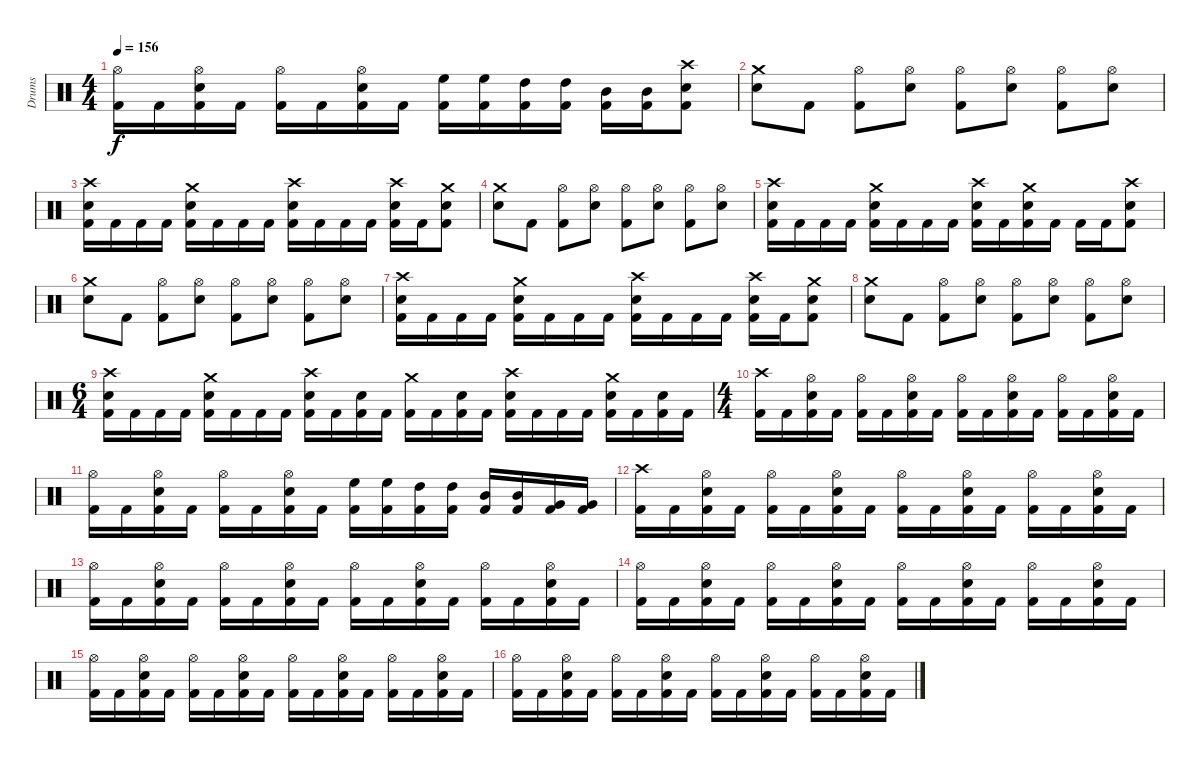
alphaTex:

\track ("Drums" "Drums") {instrument percussion}
\staff {score}
\articulation defaults
\ts (4 4)
\tempo 156
\clef neutral
\ks c
("Kick (hit) 2" "Hi-Hat (open)").16{dy f} "Kick (hit) 2".16 ("Kick (hit) 2" "Snare (hit) 2" "Hi-Hat (open)").16 "Kick (hit) 2".16 ("Kick (hit) 2" "Hi-Hat (open)").16 "Kick (hit) 2".16 ("Kick (hit) 2" "Snare (hit) 2" "Hi-Hat (open)").16 "Kick (hit) 2".16 ("Kick (hit) 2" "High Floor Tom (hit)").16 ("Kick (hit) 2" "High Floor Tom (hit)").16 ("Kick (hit) 2" "High Tom (hit)").16 ("Kick (hit) 2" "High Tom (hit)").16 ("Kick (hit) 2" "Mid Tom (hit)").16 ("Kick (hit) 2" "Mid Tom (hit)").16 ("Kick (hit) 2" "Snare (hit) 2" "Crash high (hit)").8 |
\section ("" "")
("Snare (hit) 2" "Crash medium (hit)").8 "Kick (hit) 2".8 ("Kick (hit) 2" "Hi-Hat (open)").8 ("Snare (hit) 2" "Hi-Hat (open)").8 ("Kick (hit) 2" "Hi-Hat (open)").8 ("Snare (hit) 2" "Hi-Hat (open)").8 ("Kick (hit) 2" "Hi-Hat (open)").8 ("Snare (hit) 2" "Hi-Hat (open)").8 |
("Kick (hit) 2" "Snare (hit) 2" "Crash high (hit)").16 "Kick (hit) 2".16 "Kick (hit) 2".16 "Kick (hit) 2".16 ("Kick (hit) 2" "Snare (hit) 2" "Crash medium (hit)").16 "Kick (hit) 2".16 "Kick (hit) 2".16 "Kick (hit) 2".16 ("Kick (hit) 2" "Snare (hit) 2" "Crash high (hit)").16 "Kick (hit) 2".16 "Kick (hit) 2".16 "Kick (hit) 2".16 ("Kick (hit) 2" "Snare (hit) 2" "Crash high (hit)").16 "Kick (hit) 2".16 ("Kick (hit) 2" "Snare (hit) 2" "Crash medium (hit)").8 |
("Snare (hit) 2" "Crash medium (hit)").8 "Kick (hit) 2".8 ("Kick (hit) 2" "Hi-Hat (open)").8 ("Snare (hit) 2" "Hi-Hat (open)").8 ("Kick (hit) 2" "Hi-Hat (open)").8 ("Snare (hit) 2" "Hi-Hat (open)").8 ("Kick (hit) 2" "Hi-Hat (open)").8 ("Snare (hit) 2" "Hi-Hat (open)").8 |
("Kick (hit) 2" "Snare (hit) 2" "Crash high (hit)").16 "Kick (hit) 2".16 "Kick (hit) 2".16 "Kick (hit) 2".16 ("Kick (hit) 2" "Snare (hit) 2" "Crash medium (hit)").16 "Kick (hit) 2".16 "Kick (hit) 2".16 "Kick (hit) 2".16 ("Kick (hit) 2" "Snare (hit) 2" "Crash high (hit)").16 "Kick (hit) 2".16 ("Kick (hit) 2" "Snare (hit) 2" "Crash medium (hit)").16 "Kick (hit) 2".16 "Kick (hit) 2".16 "Kick (hit) 2".16 ("Kick (hit) 2" "Snare (hit) 2" "Crash high (hit)").8 |
("Snare (hit) 2" "Crash medium (hit)").8 "Kick (hit) 2".8 ("Kick (hit) 2" "Hi-Hat (open)").8 ("Snare (hit) 2" "Hi-Hat (open)").8 ("Kick (hit) 2" "Hi-Hat (open)").8 ("Snare (hit) 2" "Hi-Hat (open)").8 ("Kick (hit) 2" "Hi-Hat (open)").8 ("Snare (hit) 2" "Hi-Hat (open)").8 |
("Kick (hit) 2" "Snare (hit) 2" "Crash high (hit)").16 "Kick (hit) 2".16 "Kick (hit) 2".16 "Kick (hit) 2".16 ("Kick (hit) 2" "Snare (hit) 2" "Crash medium (hit)").16 "Kick (hit) 2".16 "Kick (hit) 2".16 "Kick (hit) 2".16 ("Kick (hit) 2" "Snare (hit) 2" "Crash high (hit)").16 "Kick (hit) 2".16 "Kick (hit) 2".16 "Kick (hit) 2".16 ("Kick (hit) 2" "Snare (hit) 2" "Crash high (hit)").16 "Kick (hit) 2".16 ("Kick (hit) 2" "Snare (hit) 2" "Crash medium (hit)").8 |
("Snare (hit) 2" "Crash medium (hit)").8 "Kick (hit) 2".8 ("Kick (hit) 2" "Hi-Hat (open)").8 ("Snare (hit) 2" "Hi-Hat (open)").8 ("Kick (hit) 2" "Hi-Hat (open)").8 ("Snare (hit) 2" "Hi-Hat (open)").8 ("Kick (hit) 2" "Hi-Hat (open)").8 ("Snare (hit) 2" "Hi-Hat (open)").8 |
\ts (6 4)
\section ("" "")
("Kick (hit) 2" "Snare (hit) 2" "Crash high (hit)").16 "Kick (hit) 2".16 "Kick (hit) 2".16 "Kick (hit) 2".16 ("Kick (hit) 2" "Snare (hit) 2" "Crash medium (hit)").16 "Kick (hit) 2".16 "Kick (hit) 2".16 "Kick (hit) 2".16 ("Kick (hit) 2" "Snare (hit) 2" "Crash high (hit)").16 "Kick (hit) 2".16 ("Kick (hit) 2" "Snare (hit) 2").16 "Kick (hit) 2".16 ("Kick (hit) 2" "Crash medium (hit)").16 "Kick (hit) 2".16 ("Kick (hit) 2" "Snare (hit) 2").16 "Kick (hit) 2".16 ("Kick (hit) 2" "Snare (hit) 2" "Crash high (hit)").16 "Kick (hit) 2".16 "Kick (hit) 2".16 "Kick (hit) 2".16 ("Kick (hit) 2" "Snare (hit) 2" "Crash medium (hit)").16 "Kick (hit) 2".16 ("Kick (hit) 2" "Snare (hit) 2").16 "Kick (hit) 2".16 |
\ts (4 4)
("Kick (hit) 2" "Crash high (hit)").16 "Kick (hit) 2".16 ("Kick (hit) 2" "Snare (hit) 2" "Hi-Hat (open)").16 "Kick (hit) 2".16 ("Kick (hit) 2" "Hi-Hat (open)").16 "Kick (hit) 2".16 ("Kick (hit) 2" "Snare (hit) 2" "Hi-Hat (open)").16 "Kick (hit) 2".16 ("Kick (hit) 2" "Hi-Hat (open)").16 "Kick (hit) 2".16 ("Kick (hit) 2" "Snare (hit) 2" "Hi-Hat (open)").16 "Kick (hit) 2".16 ("Kick (hit) 2" "Hi-Hat (open)").16 "Kick (hit) 2".16 ("Kick (hit) 2" "Snare (hit) 2" "Hi-Hat (open)").16 "Kick (hit) 2".16 |
("Kick (hit) 2" "Hi-Hat (open)").16 "Kick (hit) 2".16 ("Kick (hit) 2" "Snare (hit) 2" "Hi-Hat (open)").16 "Kick (hit) 2".16 ("Kick (hit) 2" "Hi-Hat (open)").16 "Kick (hit) 2".16 ("Kick (hit) 2" "Snare (hit) 2" "Hi-Hat (open)").16 "Kick (hit) 2".16 ("Kick (hit) 2" "High Floor Tom (hit)").16 ("Kick (hit) 2" "High Floor Tom (hit)").16 ("Kick (hit) 2" "High Tom (hit)").16 ("Kick (hit) 2" "High Tom (hit)").16 ("Kick (hit) 2" "Mid Tom (hit)").16 ("Kick (hit) 2" "Mid Tom (hit)").16 ("Kick (hit) 2" "Very Low Tom (hit)").16 ("Kick (hit) 2" "Very Low Tom (hit)").16 |
\section ("" "")
("Kick (hit) 2" "Crash high (hit)").16 "Kick (hit) 2".16 ("Kick (hit) 2" "Snare (hit) 2" "Hi-Hat (open)").16 "Kick (hit) 2".16 ("Kick (hit) 2" "Hi-Hat (open)").16 "Kick (hit) 2".16 ("Kick (hit) 2" "Snare (hit) 2" "Hi-Hat (open)").16 "Kick (hit) 2".16 ("Kick (hit) 2" "Hi-Hat (open)").16 "Kick (hit) 2".16 ("Kick (hit) 2" "Snare (hit) 2" "Hi-Hat (open)").16 "Kick (hit) 2".16 ("Kick (hit) 2" "Hi-Hat (open)").16 "Kick (hit) 2".16 ("Kick (hit) 2" "Snare (hit) 2" "Hi-Hat (open)").16 "Kick (hit) 2".16 |
("Kick (hit) 2" "Hi-Hat (open)").16 "Kick (hit) 2".16 ("Kick (hit) 2" "Snare (hit) 2" "Hi-Hat (open)").16 "Kick (hit) 2".16 ("Kick (hit) 2" "Hi-Hat (open)").16 "Kick (hit) 2".16 ("Kick (hit) 2" "Snare (hit) 2" "Hi-Hat (open)").16 "Kick (hit) 2".16 ("Kick (hit) 2" "Hi-Hat (open)").16 "Kick (hit) 2".16 ("Kick (hit) 2" "Snare (hit) 2" "Hi-Hat (open)").16 "Kick (hit) 2".16 ("Kick (hit) 2" "Hi-Hat (open)").16 "Kick (hit) 2".16 ("Kick (hit) 2" "Snare (hit) 2" "Hi-Hat (open)").16 "Kick (hit) 2".16 |
("Kick (hit) 2" "Hi-Hat (open)").16 "Kick (hit) 2".16 ("Kick (hit) 2" "Snare (hit) 2" "Hi-Hat (open)").16 "Kick (hit) 2".16 ("Kick (hit) 2" "Hi-Hat (open)").16 "Kick (hit) 2".16 ("Kick (hit) 2" "Snare (hit) 2" "Hi-Hat (open)").16 "Kick (hit) 2".16 ("Kick (hit) 2" "Hi-Hat (open)").16 "Kick (hit) 2".16 ("Kick (hit) 2" "Snare (hit) 2" "Hi-Hat (open)").16 "Kick (hit) 2".16 ("Kick (hit) 2" "Hi-Hat (open)").16 "Kick (hit) 2".16 ("Kick (hit) 2" "Snare (hit) 2" "Hi-Hat (open)").16 "Kick (hit) 2".16 |
("Kick (hit) 2" "Hi-Hat (open)").16 "Kick (hit) 2".16 ("Kick (hit) 2" "Snare (hit) 2" "Hi-Hat (open)").16 "Kick (hit) 2".16 ("Kick (hit) 2" "Hi-Hat (open)").16 "Kick (hit) 2".16 ("Kick (hit) 2" "Snare (hit) 2" "Hi-Hat (open)").16 "Kick (hit) 2".16 ("Kick (hit) 2" "Hi-Hat (open)").16 "Kick (hit) 2".16 ("Kick (hit) 2" "Snare (hit) 2" "Hi-Hat (open)").16 "Kick (hit) 2".16 ("Kick (hit) 2" "Hi-Hat (open)").16 "Kick (hit) 2".16 ("Kick (hit) 2" "Snare (hit) 2" "Hi-Hat (open)").16 "Kick (hit) 2".16 |
("Kick (hit) 2" "Hi-Hat (open)").16 "Kick (hit) 2".16 ("Kick (hit) 2" "Snare (hit) 2" "Hi-Hat (open)").16 "Kick (hit) 2".16 ("Kick (hit) 2" "Hi-Hat (open)").16 "Kick (hit) 2".16 ("Kick (hit) 2" "Snare (hit) 2" "Hi-Hat (open)").16 "Kick (hit) 2".16 ("Kick (hit) 2" "Hi-Hat (open)").16 "Kick (hit) 2".16 ("Kick (hit) 2" "Snare (hit) 2" "Hi-Hat (open)").16 "Kick (hit) 2".16 ("Kick (hit) 2" "Hi-Hat (open)").16 "Kick (hit) 2".16 ("Kick (hit) 2" "Snare (hit) 2" "Hi-Hat (open)").16 "Kick (hit) 2".16
